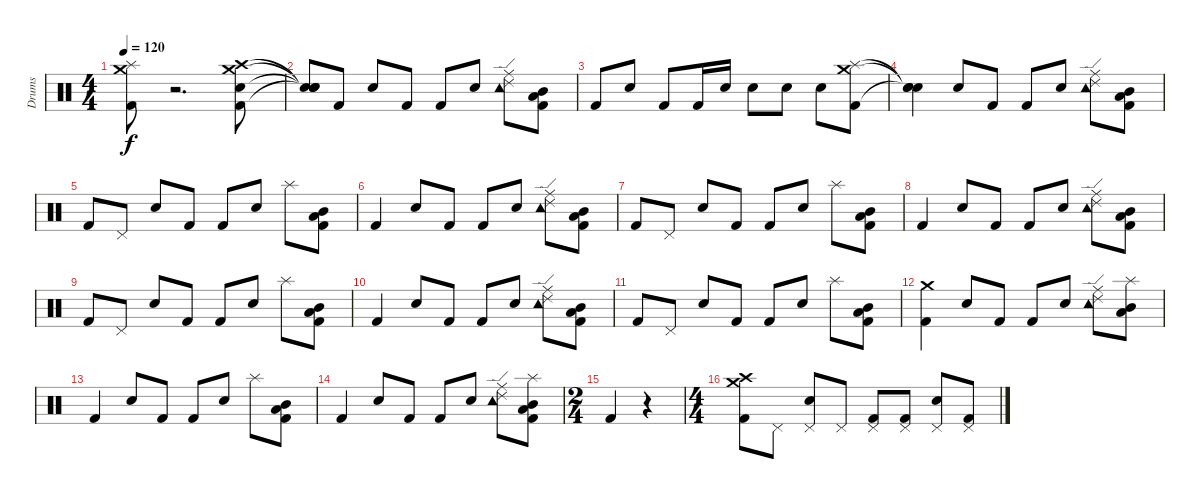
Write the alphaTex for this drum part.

\track ("Drums" "Drums") {instrument percussion}
\staff {score}
\articulation defaults
\ts (4 4)
\tempo 120
\clef neutral
\ks c
("Splash (hit)" "Crash medium (hit)" "Kick (hit) 2").8{dy f} r.2{d} ("Snare (hit) 2" "Crash high (hit)" "Crash medium (hit)" "Kick (hit) 2").8 |
("Snare (hit)"{t} "Snare (hit)"{t} "Snare (hit)"{t} "Snare (hit)"{t}).8 "Kick (hit) 2".8 "Snare (hit) 2".8 "Kick (hit) 2".8 "Kick (hit) 2".8 "Snare (hit) 2".8 ("Ride (edge) 2" "Tambourine (hit)" "Ride (middle)").8 ("Low Tom (hit)" "Kick (hit) 2" "Mid Tom (hit)").8 |
"Kick (hit) 2".8 "Snare (hit) 2".8 "Kick (hit) 2".8 "Kick (hit) 2".16 "Snare (hit) 2".16 "Snare (hit) 2".8 "Snare (hit) 2".8 "Snare (hit) 2".8 ("Splash (hit)" "Crash medium (hit)" "Kick (hit) 2").8 |
("Snare (hit)"{t} "Snare (hit)"{t} "Snare (hit)"{t}).4 "Snare (hit) 2".8 "Kick (hit) 2".8 "Kick (hit) 2".8 "Snare (hit) 2".8 ("Ride (edge) 2" "Tambourine (hit)" "Ride (middle)").8 ("Low Tom (hit)" "Mid Tom (hit)" "Kick (hit) 2").8 |
"Kick (hit) 2".8 "Pedal Hi-Hat (hit)".8 "Snare (hit) 2".8 "Kick (hit) 2".8 "Kick (hit) 2".8 "Snare (hit) 2".8 "Splash (hit)".8 ("Low Tom (hit)" "Mid Tom (hit)" "Kick (hit) 2").8 |
"Kick (hit) 2".4 "Snare (hit) 2".8 "Kick (hit) 2".8 "Kick (hit) 2".8 "Snare (hit) 2".8 ("Ride (edge) 2" "Tambourine (hit)" "Ride (middle)").8 ("Low Tom (hit)" "Mid Tom (hit)" "Kick (hit) 2").8 |
"Kick (hit) 2".8 "Pedal Hi-Hat (hit)".8 "Snare (hit) 2".8 "Kick (hit) 2".8 "Kick (hit) 2".8 "Snare (hit) 2".8 "Splash (hit)".8 ("Low Tom (hit)" "Mid Tom (hit)" "Kick (hit) 2").8 |
"Kick (hit) 2".4 "Snare (hit) 2".8 "Kick (hit) 2".8 "Kick (hit) 2".8 "Snare (hit) 2".8 ("Ride (edge) 2" "Tambourine (hit)" "Ride (middle)").8 ("Low Tom (hit)" "Mid Tom (hit)" "Kick (hit) 2").8 |
"Kick (hit) 2".8 "Pedal Hi-Hat (hit)".8 "Snare (hit) 2".8 "Kick (hit) 2".8 "Kick (hit) 2".8 "Snare (hit) 2".8 "Splash (hit)".8 ("Low Tom (hit)" "Mid Tom (hit)" "Kick (hit) 2").8 |
"Kick (hit) 2".4 "Snare (hit) 2".8 "Kick (hit) 2".8 "Kick (hit) 2".8 "Snare (hit) 2".8 ("Ride (edge) 2" "Tambourine (hit)" "Ride (middle)").8 ("Low Tom (hit)" "Mid Tom (hit)" "Kick (hit) 2").8 |
"Kick (hit) 2".8 "Pedal Hi-Hat (hit)".8 "Snare (hit) 2".8 "Kick (hit) 2".8 "Kick (hit) 2".8 "Snare (hit) 2".8 "Splash (hit)".8 ("Low Tom (hit)" "Mid Tom (hit)" "Kick (hit) 2").8 |
("Crash medium (hit)" "Kick (hit) 2").4 "Snare (hit) 2".8 "Kick (hit) 2".8 "Kick (hit) 2".8 "Snare (hit) 2".8 ("Ride (edge) 2" "Tambourine (hit)" "Ride (middle)").8 ("Low Tom (hit)" "Splash (hit)" "Mid Tom (hit)").8 |
"Kick (hit) 2".4 "Snare (hit) 2".8 "Kick (hit) 2".8 "Kick (hit) 2".8 "Snare (hit) 2".8 "Splash (hit)".8 ("Kick (hit) 2" "Low Tom (hit)" "Mid Tom (hit)").8 |
"Kick (hit) 2".4 "Snare (hit) 2".8 "Kick (hit) 2".8 "Kick (hit) 2".8 "Snare (hit) 2".8 ("Ride (edge) 2" "Tambourine (hit)" "Ride (middle)").8 ("Splash (hit)" "Kick (hit) 2" "Low Tom (hit)" "Mid Tom (hit)").8 |
\ts (2 4)
"Kick (hit) 2".4 r.4 |
\ts (4 4)
("Kick (hit) 2" "Crash high (hit)" "Crash medium (hit)").8 "Pedal Hi-Hat (hit)".8 ("Snare (hit) 2" "Pedal Hi-Hat (hit)").8 "Pedal Hi-Hat (hit)".8 ("Kick (hit) 2" "Pedal Hi-Hat (hit)").8 ("Kick (hit) 2" "Pedal Hi-Hat (hit)").8 ("Snare (hit) 2" "Pedal Hi-Hat (hit)").8 ("Kick (hit) 2" "Pedal Hi-Hat (hit)").8
